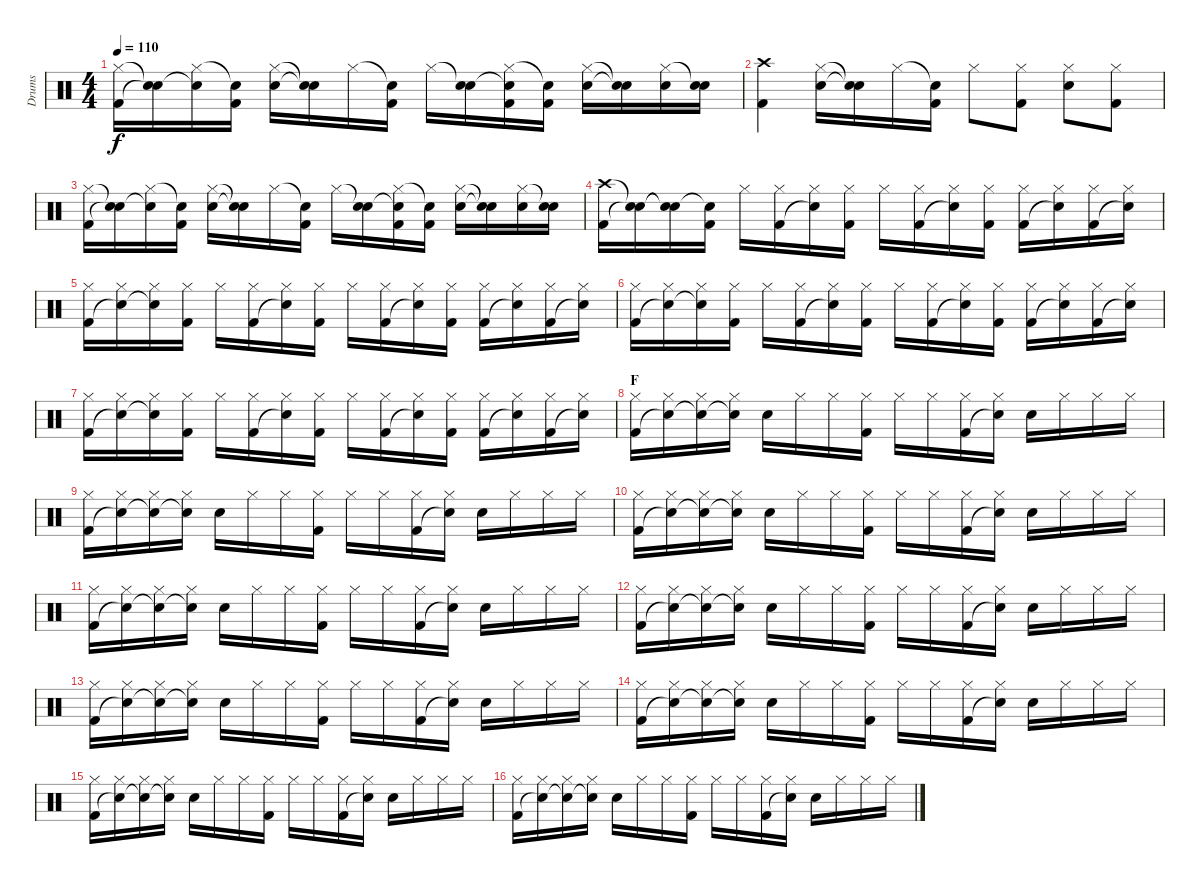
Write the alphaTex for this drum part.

\track ("Drums" "Drums") {instrument percussion}
\staff {score}
\articulation defaults
\ts (4 4)
\tempo 110
\clef neutral
\ks c
("Hi-Hat (closed)" "Kick (hit) 2").16{dy f} ("Snare (hit)"{t} "Snare (hit)"{t}).16 ("Hi-Hat (closed)" "Snare (hit)"{t}).16 ("Snare (hit)"{t} "Kick (hit) 2").16 ("Hi-Hat (closed)" "Snare (hit) 2").16 ("Snare (hit)"{t} "Snare (hit)"{t}).16 "Hi-Hat (closed)".16 ("Snare (hit)"{t} "Kick (hit) 2").16 "Hi-Hat (closed)".16 ("Snare (hit)"{t} "Snare (hit) 2").16 ("Hi-Hat (closed)" "Snare (hit)"{t} "Kick (hit) 2").16 ("Snare (hit)"{t} "Kick (hit) 2").16 ("Hi-Hat (closed)" "Snare (hit) 2").16 ("Snare (hit)"{t} "Snare (hit)"{t}).16 ("Hi-Hat (closed)" "Snare (hit) 2").16 ("Snare (hit)"{t} "Snare (hit) 2").16 |
("Crash high (hit)" "Kick (hit) 2").4 ("Hi-Hat (closed)" "Snare (hit) 2").16 ("Snare (hit)"{t} "Snare (hit)"{t}).16 "Hi-Hat (closed)".16 ("Snare (hit)"{t} "Kick (hit) 2").16 "Hi-Hat (closed)".8 ("Hi-Hat (closed)" "Kick (hit) 2").8 ("Hi-Hat (closed)" "Snare (hit) 2").8 ("Hi-Hat (closed)" "Kick (hit) 2").8 |
("Hi-Hat (closed)" "Kick (hit) 2").16 ("Snare (hit)"{t} "Snare (hit)"{t}).16 ("Hi-Hat (closed)" "Snare (hit)"{t}).16 ("Snare (hit)"{t} "Kick (hit) 2").16 ("Hi-Hat (closed)" "Snare (hit) 2").16 ("Snare (hit)"{t} "Snare (hit)"{t}).16 "Hi-Hat (closed)".16 ("Snare (hit)"{t} "Kick (hit) 2").16 "Hi-Hat (closed)".16 ("Snare (hit)"{t} "Snare (hit) 2").16 ("Hi-Hat (closed)" "Snare (hit)"{t} "Kick (hit) 2").16 ("Snare (hit)"{t} "Kick (hit) 2").16 ("Hi-Hat (closed)" "Snare (hit) 2").16 ("Snare (hit)"{t} "Snare (hit)"{t}).16 ("Hi-Hat (closed)" "Snare (hit) 2").16 ("Snare (hit)"{t} "Snare (hit) 2").16 |
("Crash high (hit)" "Kick (hit) 2").16 ("Snare (hit)"{t} "Snare (hit)"{t}).16 ("Snare (hit)"{t} "Snare (hit)"{t}).16 ("Snare (hit)"{t} "Kick (hit) 2").16 "Hi-Hat (closed)".16 ("Hi-Hat (closed)" "Kick (hit) 2").16 ("Hi-Hat (closed)" "Snare (hit)"{t}).16 ("Hi-Hat (closed)" "Kick (hit) 2").16 "Hi-Hat (closed)".16 ("Hi-Hat (closed)" "Kick (hit) 2").16 ("Hi-Hat (closed)" "Snare (hit)"{t}).16 ("Hi-Hat (closed)" "Kick (hit) 2").16 ("Hi-Hat (closed)" "Kick (hit) 2").16 ("Hi-Hat (closed)" "Snare (hit)"{t}).16 ("Hi-Hat (closed)" "Kick (hit) 2").16 ("Hi-Hat (closed)" "Snare (hit)"{t}).16 |
("Hi-Hat (closed)" "Kick (hit) 2").16 ("Hi-Hat (closed)" "Snare (hit)"{t}).16 ("Hi-Hat (closed)" "Snare (hit)"{t}).16 ("Hi-Hat (closed)" "Kick (hit) 2").16 "Hi-Hat (closed)".16 ("Hi-Hat (closed)" "Kick (hit) 2").16 ("Hi-Hat (closed)" "Snare (hit)"{t}).16 ("Hi-Hat (closed)" "Kick (hit) 2").16 "Hi-Hat (closed)".16 ("Hi-Hat (closed)" "Kick (hit) 2").16 ("Hi-Hat (closed)" "Snare (hit)"{t}).16 ("Hi-Hat (closed)" "Kick (hit) 2").16 ("Hi-Hat (closed)" "Kick (hit) 2").16 ("Hi-Hat (closed)" "Snare (hit)"{t}).16 ("Hi-Hat (closed)" "Kick (hit) 2").16 ("Hi-Hat (closed)" "Snare (hit)"{t}).16 |
("Hi-Hat (closed)" "Kick (hit) 2").16 ("Hi-Hat (closed)" "Snare (hit)"{t}).16 ("Hi-Hat (closed)" "Snare (hit)"{t}).16 ("Hi-Hat (closed)" "Kick (hit) 2").16 "Hi-Hat (closed)".16 ("Hi-Hat (closed)" "Kick (hit) 2").16 ("Hi-Hat (closed)" "Snare (hit)"{t}).16 ("Hi-Hat (closed)" "Kick (hit) 2").16 "Hi-Hat (closed)".16 ("Hi-Hat (closed)" "Kick (hit) 2").16 ("Hi-Hat (closed)" "Snare (hit)"{t}).16 ("Hi-Hat (closed)" "Kick (hit) 2").16 ("Hi-Hat (closed)" "Kick (hit) 2").16 ("Hi-Hat (closed)" "Snare (hit)"{t}).16 ("Hi-Hat (closed)" "Kick (hit) 2").16 ("Hi-Hat (closed)" "Snare (hit)"{t}).16 |
("Hi-Hat (closed)" "Kick (hit) 2").16 ("Hi-Hat (closed)" "Snare (hit)"{t}).16 ("Hi-Hat (closed)" "Snare (hit)"{t}).16 ("Hi-Hat (closed)" "Kick (hit) 2").16 "Hi-Hat (closed)".16 ("Hi-Hat (closed)" "Kick (hit) 2").16 ("Hi-Hat (closed)" "Snare (hit)"{t}).16 ("Hi-Hat (closed)" "Kick (hit) 2").16 "Hi-Hat (closed)".16 ("Hi-Hat (closed)" "Kick (hit) 2").16 ("Hi-Hat (closed)" "Snare (hit)"{t}).16 ("Hi-Hat (closed)" "Kick (hit) 2").16 ("Hi-Hat (closed)" "Kick (hit) 2").16 ("Hi-Hat (closed)" "Snare (hit)"{t}).16 ("Hi-Hat (closed)" "Kick (hit) 2").16 ("Hi-Hat (closed)" "Snare (hit)"{t}).16 |
\section ("" "F")
("Hi-Hat (closed)" "Kick (hit) 2").16 ("Hi-Hat (closed)" "Snare (hit)"{t}).16 ("Hi-Hat (closed)" "Snare (hit)"{t}).16 ("Hi-Hat (closed)" "Snare (hit)"{t}).16 "Snare (hit) 2".16 "Hi-Hat (closed)".16 "Hi-Hat (closed)".16 ("Hi-Hat (closed)" "Kick (hit) 2").16 "Hi-Hat (closed)".16 "Hi-Hat (closed)".16 ("Hi-Hat (closed)" "Kick (hit) 2").16 ("Hi-Hat (closed)" "Snare (hit)"{t}).16 "Snare (hit) 2".16 "Hi-Hat (closed)".16 "Hi-Hat (closed)".16 "Hi-Hat (closed)".16 |
("Hi-Hat (closed)" "Kick (hit) 2").16 ("Hi-Hat (closed)" "Snare (hit)"{t}).16 ("Hi-Hat (closed)" "Snare (hit)"{t}).16 ("Hi-Hat (closed)" "Snare (hit)"{t}).16 "Snare (hit) 2".16 "Hi-Hat (closed)".16 "Hi-Hat (closed)".16 ("Hi-Hat (closed)" "Kick (hit) 2").16 "Hi-Hat (closed)".16 "Hi-Hat (closed)".16 ("Hi-Hat (closed)" "Kick (hit) 2").16 ("Hi-Hat (closed)" "Snare (hit)"{t}).16 "Snare (hit) 2".16 "Hi-Hat (closed)".16 "Hi-Hat (closed)".16 "Hi-Hat (closed)".16 |
("Hi-Hat (closed)" "Kick (hit) 2").16 ("Hi-Hat (closed)" "Snare (hit)"{t}).16 ("Hi-Hat (closed)" "Snare (hit)"{t}).16 ("Hi-Hat (closed)" "Snare (hit)"{t}).16 "Snare (hit) 2".16 "Hi-Hat (closed)".16 "Hi-Hat (closed)".16 ("Hi-Hat (closed)" "Kick (hit) 2").16 "Hi-Hat (closed)".16 "Hi-Hat (closed)".16 ("Hi-Hat (closed)" "Kick (hit) 2").16 ("Hi-Hat (closed)" "Snare (hit)"{t}).16 "Snare (hit) 2".16 "Hi-Hat (closed)".16 "Hi-Hat (closed)".16 "Hi-Hat (closed)".16 |
("Hi-Hat (closed)" "Kick (hit) 2").16 ("Hi-Hat (closed)" "Snare (hit)"{t}).16 ("Hi-Hat (closed)" "Snare (hit)"{t}).16 ("Hi-Hat (closed)" "Snare (hit)"{t}).16 "Snare (hit) 2".16 "Hi-Hat (closed)".16 "Hi-Hat (closed)".16 ("Hi-Hat (closed)" "Kick (hit) 2").16 "Hi-Hat (closed)".16 "Hi-Hat (closed)".16 ("Hi-Hat (closed)" "Kick (hit) 2").16 ("Hi-Hat (closed)" "Snare (hit)"{t}).16 "Snare (hit) 2".16 "Hi-Hat (closed)".16 "Hi-Hat (closed)".16 "Hi-Hat (closed)".16 |
("Hi-Hat (closed)" "Kick (hit) 2").16 ("Hi-Hat (closed)" "Snare (hit)"{t}).16 ("Hi-Hat (closed)" "Snare (hit)"{t}).16 ("Hi-Hat (closed)" "Snare (hit)"{t}).16 "Snare (hit) 2".16 "Hi-Hat (closed)".16 "Hi-Hat (closed)".16 ("Hi-Hat (closed)" "Kick (hit) 2").16 "Hi-Hat (closed)".16 "Hi-Hat (closed)".16 ("Hi-Hat (closed)" "Kick (hit) 2").16 ("Hi-Hat (closed)" "Snare (hit)"{t}).16 "Snare (hit) 2".16 "Hi-Hat (closed)".16 "Hi-Hat (closed)".16 "Hi-Hat (closed)".16 |
("Hi-Hat (closed)" "Kick (hit) 2").16 ("Hi-Hat (closed)" "Snare (hit)"{t}).16 ("Hi-Hat (closed)" "Snare (hit)"{t}).16 ("Hi-Hat (closed)" "Snare (hit)"{t}).16 "Snare (hit) 2".16 "Hi-Hat (closed)".16 "Hi-Hat (closed)".16 ("Hi-Hat (closed)" "Kick (hit) 2").16 "Hi-Hat (closed)".16 "Hi-Hat (closed)".16 ("Hi-Hat (closed)" "Kick (hit) 2").16 ("Hi-Hat (closed)" "Snare (hit)"{t}).16 "Snare (hit) 2".16 "Hi-Hat (closed)".16 "Hi-Hat (closed)".16 "Hi-Hat (closed)".16 |
("Hi-Hat (closed)" "Kick (hit) 2").16 ("Hi-Hat (closed)" "Snare (hit)"{t}).16 ("Hi-Hat (closed)" "Snare (hit)"{t}).16 ("Hi-Hat (closed)" "Snare (hit)"{t}).16 "Snare (hit) 2".16 "Hi-Hat (closed)".16 "Hi-Hat (closed)".16 ("Hi-Hat (closed)" "Kick (hit) 2").16 "Hi-Hat (closed)".16 "Hi-Hat (closed)".16 ("Hi-Hat (closed)" "Kick (hit) 2").16 ("Hi-Hat (closed)" "Snare (hit)"{t}).16 "Snare (hit) 2".16 "Hi-Hat (closed)".16 "Hi-Hat (closed)".16 "Hi-Hat (closed)".16 |
("Hi-Hat (closed)" "Kick (hit) 2").16 ("Hi-Hat (closed)" "Snare (hit)"{t}).16 ("Hi-Hat (closed)" "Snare (hit)"{t}).16 ("Hi-Hat (closed)" "Snare (hit)"{t}).16 "Snare (hit) 2".16 "Hi-Hat (closed)".16 "Hi-Hat (closed)".16 ("Hi-Hat (closed)" "Kick (hit) 2").16 "Hi-Hat (closed)".16 "Hi-Hat (closed)".16 ("Hi-Hat (closed)" "Kick (hit) 2").16 ("Hi-Hat (closed)" "Snare (hit)"{t}).16 "Snare (hit) 2".16 "Hi-Hat (closed)".16 "Hi-Hat (closed)".16 "Hi-Hat (closed)".16 |
("Hi-Hat (closed)" "Kick (hit) 2").16 ("Hi-Hat (closed)" "Snare (hit)"{t}).16 ("Hi-Hat (closed)" "Snare (hit)"{t}).16 ("Hi-Hat (closed)" "Snare (hit)"{t}).16 "Snare (hit) 2".16 "Hi-Hat (closed)".16 "Hi-Hat (closed)".16 ("Hi-Hat (closed)" "Kick (hit) 2").16 "Hi-Hat (closed)".16 "Hi-Hat (closed)".16 ("Hi-Hat (closed)" "Kick (hit) 2").16 ("Hi-Hat (closed)" "Snare (hit)"{t}).16 "Snare (hit) 2".16 "Hi-Hat (closed)".16 "Hi-Hat (closed)".16 "Hi-Hat (closed)".16
